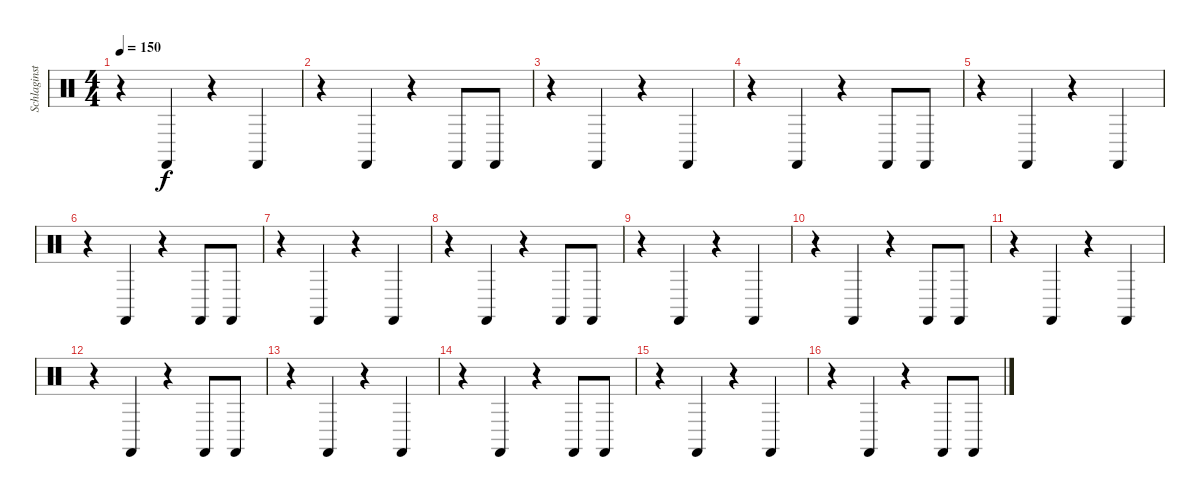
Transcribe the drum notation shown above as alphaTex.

\track ("Schlaginstrumente - Auswahl" "Schlaginst") {instrument percussion}
\staff {score}
\articulation defaults
\ts (4 4)
\tempo 150
\clef neutral
\ks c
r.4{dy f} "Castanets (hit)".4 r.4 "Castanets (hit)".4 |
r.4 "Castanets (hit)".4 r.4 "Castanets (hit)".8 "Castanets (hit)".8 |
r.4 "Castanets (hit)".4 r.4 "Castanets (hit)".4 |
r.4 "Castanets (hit)".4 r.4 "Castanets (hit)".8 "Castanets (hit)".8 |
r.4 "Castanets (hit)".4 r.4 "Castanets (hit)".4 |
r.4 "Castanets (hit)".4 r.4 "Castanets (hit)".8 "Castanets (hit)".8 |
r.4 "Castanets (hit)".4 r.4 "Castanets (hit)".4 |
r.4 "Castanets (hit)".4 r.4 "Castanets (hit)".8 "Castanets (hit)".8 |
r.4 "Castanets (hit)".4 r.4 "Castanets (hit)".4 |
r.4 "Castanets (hit)".4 r.4 "Castanets (hit)".8 "Castanets (hit)".8 |
r.4 "Castanets (hit)".4 r.4 "Castanets (hit)".4 |
r.4 "Castanets (hit)".4 r.4 "Castanets (hit)".8 "Castanets (hit)".8 |
r.4 "Castanets (hit)".4 r.4 "Castanets (hit)".4 |
r.4 "Castanets (hit)".4 r.4 "Castanets (hit)".8 "Castanets (hit)".8 |
r.4 "Castanets (hit)".4 r.4 "Castanets (hit)".4 |
r.4 "Castanets (hit)".4 r.4 "Castanets (hit)".8 "Castanets (hit)".8
